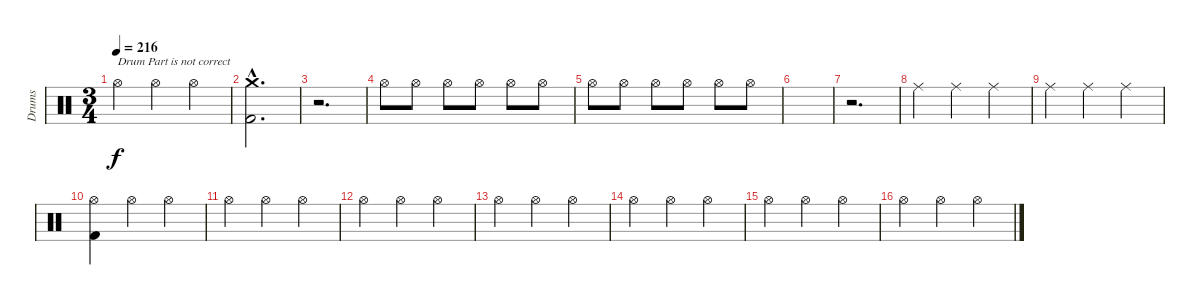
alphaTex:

\track ("Drums" "Drums") {instrument percussion}
\staff {score}
\articulation defaults
\ts (3 4)
\tempo 216
\clef neutral
\ks c "Hi-Hat (open)".4{txt "Drum Part is not correct" dy f} "Hi-Hat (open)".4 "Hi-Hat (open)".4
|
("Crash medium (hit)"{hac} "Kick (hit) 2"{hac}).2{d} |
r.2{d} |
"Hi-Hat (open)".8{volume 1} "Hi-Hat (open)".8{volume 2} "Hi-Hat (open)".8{volume 3} "Hi-Hat (open)".8{volume 4} "Hi-Hat (open)".8{volume 6} "Hi-Hat (open)".8{volume 7} |
"Hi-Hat (open)".8{volume 8} "Hi-Hat (open)".8{volume 9} "Hi-Hat (open)".8{volume 10} "Hi-Hat (open)".8{volume 11} "Hi-Hat (open)".8{volume 12} "Hi-Hat (open)".8{volume 13} |
|
r.2{d} |
"Ride (middle)".4 "Ride (middle)".4 "Ride (middle)".4 |
"Ride (middle)".4 "Ride (middle)".4 "Ride (middle)".4 |
("Hi-Hat (open)" "Kick (hit) 2").4 "Hi-Hat (open)".4 "Hi-Hat (open)".4 |
"Hi-Hat (open)".4 "Hi-Hat (open)".4 "Hi-Hat (open)".4 |
"Hi-Hat (open)".4 "Hi-Hat (open)".4 "Hi-Hat (open)".4 |
"Hi-Hat (open)".4 "Hi-Hat (open)".4 "Hi-Hat (open)".4 |
"Hi-Hat (open)".4 "Hi-Hat (open)".4 "Hi-Hat (open)".4 |
"Hi-Hat (open)".4 "Hi-Hat (open)".4 "Hi-Hat (open)".4 |
"Hi-Hat (open)".4 "Hi-Hat (open)".4 "Hi-Hat (open)".4
